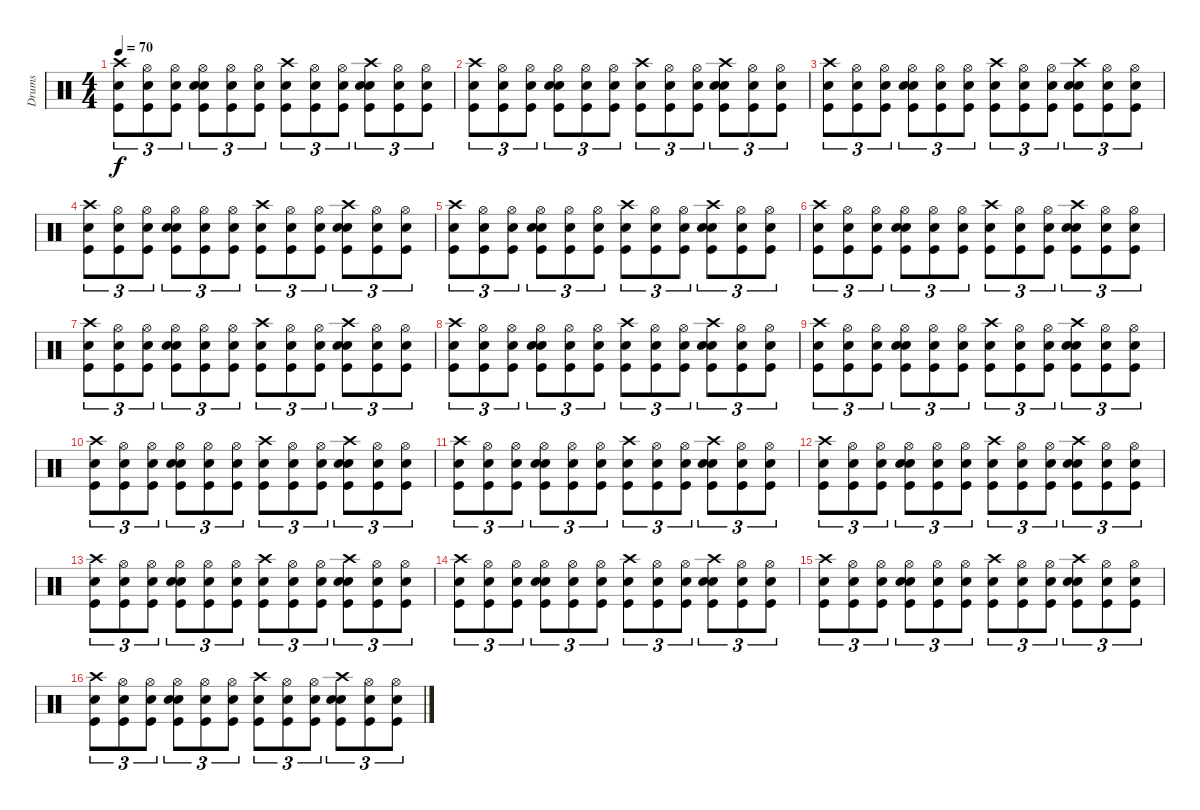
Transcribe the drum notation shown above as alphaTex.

\track ("Drums" "Drums") {instrument percussion}
\staff {score}
\articulation defaults
\ts (4 4)
\tempo 70
\clef neutral
\ks c
("Snare (hit)" "Crash high (hit)" "Kick (hit)").8{tu (3 2) dy f} ("Snare (hit)" "Kick (hit)" "Hi-Hat (open)").8{tu (3 2)} ("Snare (hit)" "Kick (hit)" "Hi-Hat (open)").8{tu (3 2)} ("Snare (hit)" "Hi-Hat (open)" "Snare (hit) 2" "Kick (hit)").8{tu (3 2)} ("Snare (hit)" "Kick (hit)" "Hi-Hat (open)").8{tu (3 2)} ("Snare (hit)" "Kick (hit)" "Hi-Hat (open)").8{tu (3 2)} ("Snare (hit)" "Kick (hit)" "Crash high (hit)").8{tu (3 2)} ("Snare (hit)" "Kick (hit)" "Hi-Hat (open)").8{tu (3 2)} ("Snare (hit)" "Kick (hit)" "Hi-Hat (open)").8{tu (3 2)} ("Snare (hit)" "Crash high (hit)" "Snare (hit) 2" "Kick (hit)").8{tu (3 2)} ("Snare (hit)" "Kick (hit)" "Hi-Hat (open)").8{tu (3 2)} ("Snare (hit)" "Kick (hit)" "Hi-Hat (open)").8{tu (3 2)} |
("Snare (hit)" "Crash high (hit)" "Kick (hit)").8{tu (3 2)} ("Snare (hit)" "Kick (hit)" "Hi-Hat (open)").8{tu (3 2)} ("Snare (hit)" "Kick (hit)" "Hi-Hat (open)").8{tu (3 2)} ("Snare (hit)" "Hi-Hat (open)" "Snare (hit) 2" "Kick (hit)").8{tu (3 2)} ("Snare (hit)" "Kick (hit)" "Hi-Hat (open)").8{tu (3 2)} ("Snare (hit)" "Kick (hit)" "Hi-Hat (open)").8{tu (3 2)} ("Snare (hit)" "Kick (hit)" "Crash high (hit)").8{tu (3 2)} ("Snare (hit)" "Kick (hit)" "Hi-Hat (open)").8{tu (3 2)} ("Snare (hit)" "Kick (hit)" "Hi-Hat (open)").8{tu (3 2)} ("Snare (hit)" "Crash high (hit)" "Snare (hit) 2" "Kick (hit)").8{tu (3 2)} ("Snare (hit)" "Kick (hit)" "Hi-Hat (open)").8{tu (3 2)} ("Snare (hit)" "Kick (hit)" "Hi-Hat (open)").8{tu (3 2)} |
("Snare (hit)" "Crash high (hit)" "Kick (hit)").8{tu (3 2)} ("Snare (hit)" "Kick (hit)" "Hi-Hat (open)").8{tu (3 2)} ("Snare (hit)" "Kick (hit)" "Hi-Hat (open)").8{tu (3 2)} ("Snare (hit)" "Hi-Hat (open)" "Snare (hit) 2" "Kick (hit)").8{tu (3 2)} ("Snare (hit)" "Kick (hit)" "Hi-Hat (open)").8{tu (3 2)} ("Snare (hit)" "Kick (hit)" "Hi-Hat (open)").8{tu (3 2)} ("Snare (hit)" "Kick (hit)" "Crash high (hit)").8{tu (3 2)} ("Snare (hit)" "Kick (hit)" "Hi-Hat (open)").8{tu (3 2)} ("Snare (hit)" "Kick (hit)" "Hi-Hat (open)").8{tu (3 2)} ("Snare (hit)" "Crash high (hit)" "Snare (hit) 2" "Kick (hit)").8{tu (3 2)} ("Snare (hit)" "Kick (hit)" "Hi-Hat (open)").8{tu (3 2)} ("Snare (hit)" "Kick (hit)" "Hi-Hat (open)").8{tu (3 2)} |
("Snare (hit)" "Crash high (hit)" "Kick (hit)").8{tu (3 2)} ("Snare (hit)" "Kick (hit)" "Hi-Hat (open)").8{tu (3 2)} ("Snare (hit)" "Kick (hit)" "Hi-Hat (open)").8{tu (3 2)} ("Snare (hit)" "Hi-Hat (open)" "Snare (hit) 2" "Kick (hit)").8{tu (3 2)} ("Snare (hit)" "Kick (hit)" "Hi-Hat (open)").8{tu (3 2)} ("Snare (hit)" "Kick (hit)" "Hi-Hat (open)").8{tu (3 2)} ("Snare (hit)" "Kick (hit)" "Crash high (hit)").8{tu (3 2)} ("Snare (hit)" "Kick (hit)" "Hi-Hat (open)").8{tu (3 2)} ("Snare (hit)" "Kick (hit)" "Hi-Hat (open)").8{tu (3 2)} ("Snare (hit)" "Crash high (hit)" "Snare (hit) 2" "Kick (hit)").8{tu (3 2)} ("Snare (hit)" "Kick (hit)" "Hi-Hat (open)").8{tu (3 2)} ("Snare (hit)" "Kick (hit)" "Hi-Hat (open)").8{tu (3 2)} |
("Snare (hit)" "Crash high (hit)" "Kick (hit)").8{tu (3 2)} ("Snare (hit)" "Kick (hit)" "Hi-Hat (open)").8{tu (3 2)} ("Snare (hit)" "Kick (hit)" "Hi-Hat (open)").8{tu (3 2)} ("Snare (hit)" "Hi-Hat (open)" "Snare (hit) 2" "Kick (hit)").8{tu (3 2)} ("Snare (hit)" "Kick (hit)" "Hi-Hat (open)").8{tu (3 2)} ("Snare (hit)" "Kick (hit)" "Hi-Hat (open)").8{tu (3 2)} ("Snare (hit)" "Kick (hit)" "Crash high (hit)").8{tu (3 2)} ("Snare (hit)" "Kick (hit)" "Hi-Hat (open)").8{tu (3 2)} ("Snare (hit)" "Kick (hit)" "Hi-Hat (open)").8{tu (3 2)} ("Snare (hit)" "Crash high (hit)" "Snare (hit) 2" "Kick (hit)").8{tu (3 2)} ("Snare (hit)" "Kick (hit)" "Hi-Hat (open)").8{tu (3 2)} ("Snare (hit)" "Kick (hit)" "Hi-Hat (open)").8{tu (3 2)} |
("Snare (hit)" "Crash high (hit)" "Kick (hit)").8{tu (3 2)} ("Snare (hit)" "Kick (hit)" "Hi-Hat (open)").8{tu (3 2)} ("Snare (hit)" "Kick (hit)" "Hi-Hat (open)").8{tu (3 2)} ("Snare (hit)" "Hi-Hat (open)" "Snare (hit) 2" "Kick (hit)").8{tu (3 2)} ("Snare (hit)" "Kick (hit)" "Hi-Hat (open)").8{tu (3 2)} ("Snare (hit)" "Kick (hit)" "Hi-Hat (open)").8{tu (3 2)} ("Snare (hit)" "Kick (hit)" "Crash high (hit)").8{tu (3 2)} ("Snare (hit)" "Kick (hit)" "Hi-Hat (open)").8{tu (3 2)} ("Snare (hit)" "Kick (hit)" "Hi-Hat (open)").8{tu (3 2)} ("Snare (hit)" "Crash high (hit)" "Snare (hit) 2" "Kick (hit)").8{tu (3 2)} ("Snare (hit)" "Kick (hit)" "Hi-Hat (open)").8{tu (3 2)} ("Snare (hit)" "Kick (hit)" "Hi-Hat (open)").8{tu (3 2)} |
("Snare (hit)" "Crash high (hit)" "Kick (hit)").8{tu (3 2)} ("Snare (hit)" "Kick (hit)" "Hi-Hat (open)").8{tu (3 2)} ("Snare (hit)" "Kick (hit)" "Hi-Hat (open)").8{tu (3 2)} ("Snare (hit)" "Hi-Hat (open)" "Snare (hit) 2" "Kick (hit)").8{tu (3 2)} ("Snare (hit)" "Kick (hit)" "Hi-Hat (open)").8{tu (3 2)} ("Snare (hit)" "Kick (hit)" "Hi-Hat (open)").8{tu (3 2)} ("Snare (hit)" "Kick (hit)" "Crash high (hit)").8{tu (3 2)} ("Snare (hit)" "Kick (hit)" "Hi-Hat (open)").8{tu (3 2)} ("Snare (hit)" "Kick (hit)" "Hi-Hat (open)").8{tu (3 2)} ("Snare (hit)" "Crash high (hit)" "Snare (hit) 2" "Kick (hit)").8{tu (3 2)} ("Snare (hit)" "Kick (hit)" "Hi-Hat (open)").8{tu (3 2)} ("Snare (hit)" "Kick (hit)" "Hi-Hat (open)").8{tu (3 2)} |
("Snare (hit)" "Crash high (hit)" "Kick (hit)").8{tu (3 2)} ("Snare (hit)" "Kick (hit)" "Hi-Hat (open)").8{tu (3 2)} ("Snare (hit)" "Kick (hit)" "Hi-Hat (open)").8{tu (3 2)} ("Snare (hit)" "Hi-Hat (open)" "Snare (hit) 2" "Kick (hit)").8{tu (3 2)} ("Snare (hit)" "Kick (hit)" "Hi-Hat (open)").8{tu (3 2)} ("Snare (hit)" "Kick (hit)" "Hi-Hat (open)").8{tu (3 2)} ("Snare (hit)" "Kick (hit)" "Crash high (hit)").8{tu (3 2)} ("Snare (hit)" "Kick (hit)" "Hi-Hat (open)").8{tu (3 2)} ("Snare (hit)" "Kick (hit)" "Hi-Hat (open)").8{tu (3 2)} ("Snare (hit)" "Crash high (hit)" "Snare (hit) 2" "Kick (hit)").8{tu (3 2)} ("Snare (hit)" "Kick (hit)" "Hi-Hat (open)").8{tu (3 2)} ("Snare (hit)" "Kick (hit)" "Hi-Hat (open)").8{tu (3 2)} |
("Snare (hit)" "Crash high (hit)" "Kick (hit)").8{tu (3 2)} ("Snare (hit)" "Kick (hit)" "Hi-Hat (open)").8{tu (3 2)} ("Snare (hit)" "Kick (hit)" "Hi-Hat (open)").8{tu (3 2)} ("Snare (hit)" "Hi-Hat (open)" "Snare (hit) 2" "Kick (hit)").8{tu (3 2)} ("Snare (hit)" "Kick (hit)" "Hi-Hat (open)").8{tu (3 2)} ("Snare (hit)" "Kick (hit)" "Hi-Hat (open)").8{tu (3 2)} ("Snare (hit)" "Kick (hit)" "Crash high (hit)").8{tu (3 2)} ("Snare (hit)" "Kick (hit)" "Hi-Hat (open)").8{tu (3 2)} ("Snare (hit)" "Kick (hit)" "Hi-Hat (open)").8{tu (3 2)} ("Snare (hit)" "Crash high (hit)" "Snare (hit) 2" "Kick (hit)").8{tu (3 2)} ("Snare (hit)" "Kick (hit)" "Hi-Hat (open)").8{tu (3 2)} ("Snare (hit)" "Kick (hit)" "Hi-Hat (open)").8{tu (3 2)} |
("Snare (hit)" "Crash high (hit)" "Kick (hit)").8{tu (3 2)} ("Snare (hit)" "Kick (hit)" "Hi-Hat (open)").8{tu (3 2)} ("Snare (hit)" "Kick (hit)" "Hi-Hat (open)").8{tu (3 2)} ("Snare (hit)" "Hi-Hat (open)" "Snare (hit) 2" "Kick (hit)").8{tu (3 2)} ("Snare (hit)" "Kick (hit)" "Hi-Hat (open)").8{tu (3 2)} ("Snare (hit)" "Kick (hit)" "Hi-Hat (open)").8{tu (3 2)} ("Snare (hit)" "Kick (hit)" "Crash high (hit)").8{tu (3 2)} ("Snare (hit)" "Kick (hit)" "Hi-Hat (open)").8{tu (3 2)} ("Snare (hit)" "Kick (hit)" "Hi-Hat (open)").8{tu (3 2)} ("Snare (hit)" "Crash high (hit)" "Snare (hit) 2" "Kick (hit)").8{tu (3 2)} ("Snare (hit)" "Kick (hit)" "Hi-Hat (open)").8{tu (3 2)} ("Snare (hit)" "Kick (hit)" "Hi-Hat (open)").8{tu (3 2)} |
("Snare (hit)" "Crash high (hit)" "Kick (hit)").8{tu (3 2)} ("Snare (hit)" "Kick (hit)" "Hi-Hat (open)").8{tu (3 2)} ("Snare (hit)" "Kick (hit)" "Hi-Hat (open)").8{tu (3 2)} ("Snare (hit)" "Hi-Hat (open)" "Snare (hit) 2" "Kick (hit)").8{tu (3 2)} ("Snare (hit)" "Kick (hit)" "Hi-Hat (open)").8{tu (3 2)} ("Snare (hit)" "Kick (hit)" "Hi-Hat (open)").8{tu (3 2)} ("Snare (hit)" "Kick (hit)" "Crash high (hit)").8{tu (3 2)} ("Snare (hit)" "Kick (hit)" "Hi-Hat (open)").8{tu (3 2)} ("Snare (hit)" "Kick (hit)" "Hi-Hat (open)").8{tu (3 2)} ("Snare (hit)" "Crash high (hit)" "Snare (hit) 2" "Kick (hit)").8{tu (3 2)} ("Snare (hit)" "Kick (hit)" "Hi-Hat (open)").8{tu (3 2)} ("Snare (hit)" "Kick (hit)" "Hi-Hat (open)").8{tu (3 2)} |
("Snare (hit)" "Crash high (hit)" "Kick (hit)").8{tu (3 2)} ("Snare (hit)" "Kick (hit)" "Hi-Hat (open)").8{tu (3 2)} ("Snare (hit)" "Kick (hit)" "Hi-Hat (open)").8{tu (3 2)} ("Snare (hit)" "Hi-Hat (open)" "Snare (hit) 2" "Kick (hit)").8{tu (3 2)} ("Snare (hit)" "Kick (hit)" "Hi-Hat (open)").8{tu (3 2)} ("Snare (hit)" "Kick (hit)" "Hi-Hat (open)").8{tu (3 2)} ("Snare (hit)" "Kick (hit)" "Crash high (hit)").8{tu (3 2)} ("Snare (hit)" "Kick (hit)" "Hi-Hat (open)").8{tu (3 2)} ("Snare (hit)" "Kick (hit)" "Hi-Hat (open)").8{tu (3 2)} ("Snare (hit)" "Crash high (hit)" "Snare (hit) 2" "Kick (hit)").8{tu (3 2)} ("Snare (hit)" "Kick (hit)" "Hi-Hat (open)").8{tu (3 2)} ("Snare (hit)" "Kick (hit)" "Hi-Hat (open)").8{tu (3 2)} |
("Snare (hit)" "Crash high (hit)" "Kick (hit)").8{tu (3 2)} ("Snare (hit)" "Kick (hit)" "Hi-Hat (open)").8{tu (3 2)} ("Snare (hit)" "Kick (hit)" "Hi-Hat (open)").8{tu (3 2)} ("Snare (hit)" "Hi-Hat (open)" "Snare (hit) 2" "Kick (hit)").8{tu (3 2)} ("Snare (hit)" "Kick (hit)" "Hi-Hat (open)").8{tu (3 2)} ("Snare (hit)" "Kick (hit)" "Hi-Hat (open)").8{tu (3 2)} ("Snare (hit)" "Kick (hit)" "Crash high (hit)").8{tu (3 2)} ("Snare (hit)" "Kick (hit)" "Hi-Hat (open)").8{tu (3 2)} ("Snare (hit)" "Kick (hit)" "Hi-Hat (open)").8{tu (3 2)} ("Snare (hit)" "Crash high (hit)" "Snare (hit) 2" "Kick (hit)").8{tu (3 2)} ("Snare (hit)" "Kick (hit)" "Hi-Hat (open)").8{tu (3 2)} ("Snare (hit)" "Kick (hit)" "Hi-Hat (open)").8{tu (3 2)} |
("Snare (hit)" "Crash high (hit)" "Kick (hit)").8{tu (3 2)} ("Snare (hit)" "Kick (hit)" "Hi-Hat (open)").8{tu (3 2)} ("Snare (hit)" "Kick (hit)" "Hi-Hat (open)").8{tu (3 2)} ("Snare (hit)" "Hi-Hat (open)" "Snare (hit) 2" "Kick (hit)").8{tu (3 2)} ("Snare (hit)" "Kick (hit)" "Hi-Hat (open)").8{tu (3 2)} ("Snare (hit)" "Kick (hit)" "Hi-Hat (open)").8{tu (3 2)} ("Snare (hit)" "Kick (hit)" "Crash high (hit)").8{tu (3 2)} ("Snare (hit)" "Kick (hit)" "Hi-Hat (open)").8{tu (3 2)} ("Snare (hit)" "Kick (hit)" "Hi-Hat (open)").8{tu (3 2)} ("Snare (hit)" "Crash high (hit)" "Snare (hit) 2" "Kick (hit)").8{tu (3 2)} ("Snare (hit)" "Kick (hit)" "Hi-Hat (open)").8{tu (3 2)} ("Snare (hit)" "Kick (hit)" "Hi-Hat (open)").8{tu (3 2)} |
("Snare (hit)" "Crash high (hit)" "Kick (hit)").8{tu (3 2)} ("Snare (hit)" "Kick (hit)" "Hi-Hat (open)").8{tu (3 2)} ("Snare (hit)" "Kick (hit)" "Hi-Hat (open)").8{tu (3 2)} ("Snare (hit)" "Hi-Hat (open)" "Snare (hit) 2" "Kick (hit)").8{tu (3 2)} ("Snare (hit)" "Kick (hit)" "Hi-Hat (open)").8{tu (3 2)} ("Snare (hit)" "Kick (hit)" "Hi-Hat (open)").8{tu (3 2)} ("Snare (hit)" "Kick (hit)" "Crash high (hit)").8{tu (3 2)} ("Snare (hit)" "Kick (hit)" "Hi-Hat (open)").8{tu (3 2)} ("Snare (hit)" "Kick (hit)" "Hi-Hat (open)").8{tu (3 2)} ("Snare (hit)" "Crash high (hit)" "Snare (hit) 2" "Kick (hit)").8{tu (3 2)} ("Snare (hit)" "Kick (hit)" "Hi-Hat (open)").8{tu (3 2)} ("Snare (hit)" "Kick (hit)" "Hi-Hat (open)").8{tu (3 2)} |
("Snare (hit)" "Crash high (hit)" "Kick (hit)").8{tu (3 2)} ("Snare (hit)" "Kick (hit)" "Hi-Hat (open)").8{tu (3 2)} ("Snare (hit)" "Kick (hit)" "Hi-Hat (open)").8{tu (3 2)} ("Snare (hit)" "Hi-Hat (open)" "Snare (hit) 2" "Kick (hit)").8{tu (3 2)} ("Snare (hit)" "Kick (hit)" "Hi-Hat (open)").8{tu (3 2)} ("Snare (hit)" "Kick (hit)" "Hi-Hat (open)").8{tu (3 2)} ("Snare (hit)" "Kick (hit)" "Crash high (hit)").8{tu (3 2)} ("Snare (hit)" "Kick (hit)" "Hi-Hat (open)").8{tu (3 2)} ("Snare (hit)" "Kick (hit)" "Hi-Hat (open)").8{tu (3 2)} ("Snare (hit)" "Crash high (hit)" "Snare (hit) 2" "Kick (hit)").8{tu (3 2)} ("Snare (hit)" "Kick (hit)" "Hi-Hat (open)").8{tu (3 2)} ("Snare (hit)" "Kick (hit)" "Hi-Hat (open)").8{tu (3 2)}
